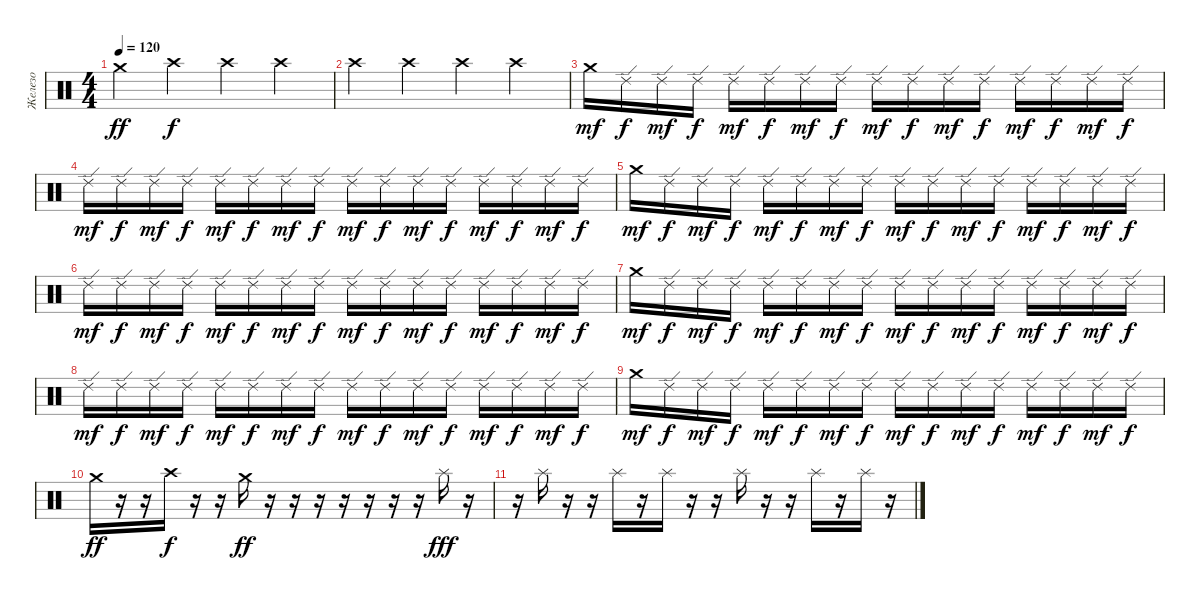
\track ("Железо" "Железо") {instrument percussion}
\staff {score}
\articulation defaults
\ts (4 4)
\tempo 120
\clef neutral
\ks c "Crash medium (hit)".4{dy ff} "Crash high (hit)".4{dy f} "Crash high (hit)".4 "Crash high (hit)".4
|
"Crash high (hit)".4 "Crash high (hit)".4 "Crash high (hit)".4 "Crash high (hit)".4 |
"Crash medium (hit)".16{dy mf} "Ride (edge) 2".16{dy f} "Ride (edge) 2".16{dy mf} "Ride (edge) 2".16{dy f} "Ride (edge) 2".16{dy mf} "Ride (edge) 2".16{dy f} "Ride (edge) 2".16{dy mf} "Ride (edge) 2".16{dy f} "Ride (edge) 2".16{dy mf} "Ride (edge) 2".16{dy f} "Ride (edge) 2".16{dy mf} "Ride (edge) 2".16{dy f} "Ride (edge) 2".16{dy mf} "Ride (edge) 2".16{dy f} "Ride (edge) 2".16{dy mf} "Ride (edge) 2".16{dy f} |
"Ride (edge) 2".16{dy mf} "Ride (edge) 2".16{dy f} "Ride (edge) 2".16{dy mf} "Ride (edge) 2".16{dy f} "Ride (edge) 2".16{dy mf} "Ride (edge) 2".16{dy f} "Ride (edge) 2".16{dy mf} "Ride (edge) 2".16{dy f} "Ride (edge) 2".16{dy mf} "Ride (edge) 2".16{dy f} "Ride (edge) 2".16{dy mf} "Ride (edge) 2".16{dy f} "Ride (edge) 2".16{dy mf} "Ride (edge) 2".16{dy f} "Ride (edge) 2".16{dy mf} "Ride (edge) 2".16{dy f} |
"Crash medium (hit)".16{dy mf} "Ride (edge) 2".16{dy f} "Ride (edge) 2".16{dy mf} "Ride (edge) 2".16{dy f} "Ride (edge) 2".16{dy mf} "Ride (edge) 2".16{dy f} "Ride (edge) 2".16{dy mf} "Ride (edge) 2".16{dy f} "Ride (edge) 2".16{dy mf} "Ride (edge) 2".16{dy f} "Ride (edge) 2".16{dy mf} "Ride (edge) 2".16{dy f} "Ride (edge) 2".16{dy mf} "Ride (edge) 2".16{dy f} "Ride (edge) 2".16{dy mf} "Ride (edge) 2".16{dy f} |
"Ride (edge) 2".16{dy mf} "Ride (edge) 2".16{dy f} "Ride (edge) 2".16{dy mf} "Ride (edge) 2".16{dy f} "Ride (edge) 2".16{dy mf} "Ride (edge) 2".16{dy f} "Ride (edge) 2".16{dy mf} "Ride (edge) 2".16{dy f} "Ride (edge) 2".16{dy mf} "Ride (edge) 2".16{dy f} "Ride (edge) 2".16{dy mf} "Ride (edge) 2".16{dy f} "Ride (edge) 2".16{dy mf} "Ride (edge) 2".16{dy f} "Ride (edge) 2".16{dy mf} "Ride (edge) 2".16{dy f} |
"Crash medium (hit)".16{dy mf} "Ride (edge) 2".16{dy f} "Ride (edge) 2".16{dy mf} "Ride (edge) 2".16{dy f} "Ride (edge) 2".16{dy mf} "Ride (edge) 2".16{dy f} "Ride (edge) 2".16{dy mf} "Ride (edge) 2".16{dy f} "Ride (edge) 2".16{dy mf} "Ride (edge) 2".16{dy f} "Ride (edge) 2".16{dy mf} "Ride (edge) 2".16{dy f} "Ride (edge) 2".16{dy mf} "Ride (edge) 2".16{dy f} "Ride (edge) 2".16{dy mf} "Ride (edge) 2".16{dy f} |
"Ride (edge) 2".16{dy mf} "Ride (edge) 2".16{dy f} "Ride (edge) 2".16{dy mf} "Ride (edge) 2".16{dy f} "Ride (edge) 2".16{dy mf} "Ride (edge) 2".16{dy f} "Ride (edge) 2".16{dy mf} "Ride (edge) 2".16{dy f} "Ride (edge) 2".16{dy mf} "Ride (edge) 2".16{dy f} "Ride (edge) 2".16{dy mf} "Ride (edge) 2".16{dy f} "Ride (edge) 2".16{dy mf} "Ride (edge) 2".16{dy f} "Ride (edge) 2".16{dy mf} "Ride (edge) 2".16{dy f} |
"Crash medium (hit)".16{dy mf} "Ride (edge) 2".16{dy f} "Ride (edge) 2".16{dy mf} "Ride (edge) 2".16{dy f} "Ride (edge) 2".16{dy mf} "Ride (edge) 2".16{dy f} "Ride (edge) 2".16{dy mf} "Ride (edge) 2".16{dy f} "Ride (edge) 2".16{dy mf} "Ride (edge) 2".16{dy f} "Ride (edge) 2".16{dy mf} "Ride (edge) 2".16{dy f} "Ride (edge) 2".16{dy mf} "Ride (edge) 2".16{dy f} "Ride (edge) 2".16{dy mf} "Ride (edge) 2".16{dy f} |
"Crash medium (hit)".16{dy ff} r.16 r.16 "Crash high (hit)".16{dy f} r.16 r.16 "Crash medium (hit)".16{dy ff} r.16 r.16 r.16 r.16 r.16 r.16 r.16 "Splash (hit)".16{dy fff} r.16 |
r.16 "Splash (hit)".16 r.16 r.16 "Splash (hit)".16 r.16 "Splash (hit)".16 r.16 r.16 "Splash (hit)".16 r.16 r.16 "Splash (hit)".16 r.16 "Splash (hit)".16 r.16
